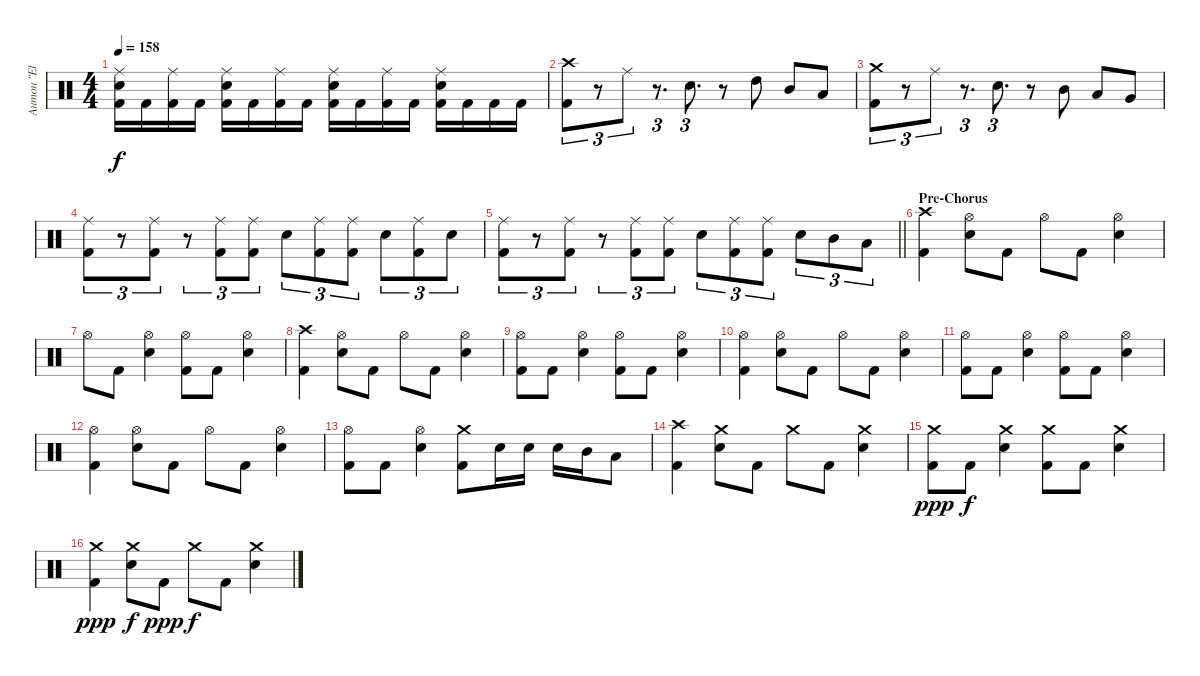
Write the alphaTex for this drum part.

\track ("Антон \"El Bastardo\" Смольянин" "Антон \"El ") {instrument percussion}
\staff {score}
\articulation defaults
\ts (4 4)
\tempo 158
\clef neutral
\ks c
("Ride (middle)" "Electric Snare (hit)" "Kick (hit) 2").16{dy f} "Kick (hit) 2".16 ("Ride (middle)" "Kick (hit) 2").16 "Kick (hit) 2".16 ("Ride (middle)" "Electric Snare (hit)" "Kick (hit) 2").16 "Kick (hit) 2".16 ("Ride (middle)" "Kick (hit) 2").16 "Kick (hit) 2".16 ("Ride (middle)" "Electric Snare (hit)" "Kick (hit) 2").16 "Kick (hit) 2".16 ("Ride (middle)" "Kick (hit) 2").16 "Kick (hit) 2".16 ("Ride (middle)" "Electric Snare (hit)" "Kick (hit) 2").16 "Kick (hit) 2".16 "Kick (hit) 2".16 "Kick (hit) 2".16 |
("Crash high (hit)" "Kick (hit) 2").8{tu (3 2)} r.8{tu (3 2)} "Ride (middle)".8{tu (3 2)} r.8{d tu (3 2)} "Electric Snare (hit)".8{d tu (3 2)} r.8 "High Tom (hit)".8 "Mid Tom (hit)".8 "Low Tom (hit)".8 |
("Crash medium (hit)" "Kick (hit) 2").8{tu (3 2)} r.8{tu (3 2)} "Ride (middle)".8{tu (3 2)} r.8{d tu (3 2)} "Electric Snare (hit)".8{d tu (3 2)} r.8 "Mid Tom (hit)".8 "Low Tom (hit)".8 "Very Low Tom (hit)".8 |
("Ride (middle)" "Kick (hit) 2").8{tu (3 2)} r.8{tu (3 2)} ("Ride (middle)" "Kick (hit) 2").8{tu (3 2)} r.8{tu (3 2)} ("Ride (middle)" "Kick (hit) 2").8{tu (3 2)} ("Ride (middle)" "Kick (hit) 2").8{tu (3 2)} "Electric Snare (hit)".8{tu (3 2)} ("Ride (middle)" "Kick (hit) 2").8{tu (3 2)} ("Ride (middle)" "Kick (hit) 2").8{tu (3 2)} "Electric Snare (hit)".8{tu (3 2)} ("Ride (middle)" "Kick (hit) 2").8{tu (3 2)} "Electric Snare (hit)".8{tu (3 2)} |
\barLineRight lightlight
("Ride (middle)" "Kick (hit) 2").8{tu (3 2)} r.8{tu (3 2)} ("Ride (middle)" "Kick (hit) 2").8{tu (3 2)} r.8{tu (3 2)} ("Ride (middle)" "Kick (hit) 2").8{tu (3 2)} ("Ride (middle)" "Kick (hit) 2").8{tu (3 2)} "Electric Snare (hit)".8{tu (3 2)} ("Ride (middle)" "Kick (hit) 2").8{tu (3 2)} ("Ride (middle)" "Kick (hit) 2").8{tu (3 2)} "Electric Snare (hit)".8{tu (3 2)} "Mid Tom (hit)".8{tu (3 2)} "Low Tom (hit)".8{tu (3 2)} |
\section ("" "Pre-Chorus")
("Crash high (hit)" "Kick (hit) 2").4 ("Hi-Hat (open)" "Electric Snare (hit)").8 "Kick (hit) 2".8 "Hi-Hat (open)".8 "Kick (hit) 2".8 ("Hi-Hat (open)" "Electric Snare (hit)").4 |
"Hi-Hat (open)".8 "Kick (hit) 2".8 ("Hi-Hat (open)" "Electric Snare (hit)").4 ("Hi-Hat (open)" "Kick (hit) 2").8 "Kick (hit) 2".8 ("Hi-Hat (open)" "Electric Snare (hit)").4 |
("Crash high (hit)" "Kick (hit) 2").4 ("Hi-Hat (open)" "Electric Snare (hit)").8 "Kick (hit) 2".8 "Hi-Hat (open)".8 "Kick (hit) 2".8 ("Hi-Hat (open)" "Electric Snare (hit)").4 |
("Hi-Hat (open)" "Kick (hit) 2").8 "Kick (hit) 2".8 ("Hi-Hat (open)" "Electric Snare (hit)").4 ("Hi-Hat (open)" "Kick (hit) 2").8 "Kick (hit) 2".8 ("Hi-Hat (open)" "Electric Snare (hit)").4 |
("Hi-Hat (open)" "Kick (hit) 2").4 ("Hi-Hat (open)" "Electric Snare (hit)").8 "Kick (hit) 2".8 "Hi-Hat (open)".8 "Kick (hit) 2".8 ("Hi-Hat (open)" "Electric Snare (hit)").4 |
("Hi-Hat (open)" "Kick (hit) 2").8 "Kick (hit) 2".8 ("Hi-Hat (open)" "Electric Snare (hit)").4 ("Hi-Hat (open)" "Kick (hit) 2").8 "Kick (hit) 2".8 ("Hi-Hat (open)" "Electric Snare (hit)").4 |
("Hi-Hat (open)" "Kick (hit) 2").4 ("Hi-Hat (open)" "Electric Snare (hit)").8 "Kick (hit) 2".8 "Hi-Hat (open)".8 "Kick (hit) 2".8 ("Hi-Hat (open)" "Electric Snare (hit)").4 |
("Hi-Hat (open)" "Kick (hit) 2").8 "Kick (hit) 2".8 ("Hi-Hat (open)" "Electric Snare (hit)").4 ("Crash medium (hit)" "Kick (hit) 2").8 "Electric Snare (hit)".16 "Electric Snare (hit)".16 "Electric Snare (hit)".16 "Mid Tom (hit)".16 "Low Tom (hit)".8 |
("Crash high (hit)" "Kick (hit) 2").4 ("Crash medium (hit)" "Electric Snare (hit)").8 "Kick (hit) 2".8 "Crash medium (hit)".8 "Kick (hit) 2".8 ("Crash medium (hit)" "Electric Snare (hit)").4 |
("Crash medium (hit)" "Kick (hit) 2").8{dy ppp} "Kick (hit) 2".8{dy f} ("Crash medium (hit)" "Electric Snare (hit)").4 ("Crash medium (hit)" "Kick (hit) 2").8 "Kick (hit) 2".8 ("Crash medium (hit)" "Electric Snare (hit)").4 |
("Crash medium (hit)" "Kick (hit) 2").4{dy ppp} ("Crash medium (hit)" "Electric Snare (hit)").8{dy f} "Kick (hit) 2".8{dy ppp} "Crash medium (hit)".8{dy f} "Kick (hit) 2".8 ("Crash medium (hit)" "Electric Snare (hit)").4
